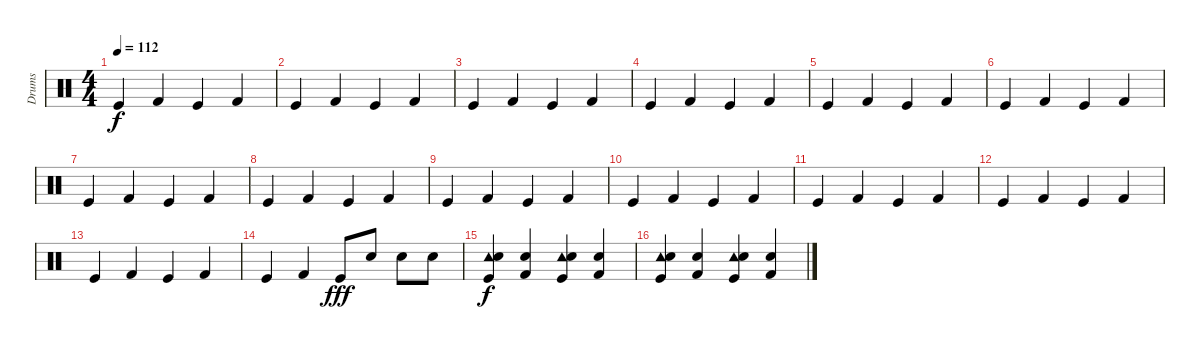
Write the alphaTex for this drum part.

\track ("Drums" "Drums") {instrument percussion}
\staff {score}
\articulation defaults
\ts (4 4)
\tempo 112
\clef neutral
\ks c "Kick (hit)".4{dy f} "Kick (hit) 2".4 "Kick (hit)".4 "Kick (hit) 2".4
|
"Kick (hit)".4 "Kick (hit) 2".4 "Kick (hit)".4 "Kick (hit) 2".4 |
"Kick (hit)".4 "Kick (hit) 2".4 "Kick (hit)".4 "Kick (hit) 2".4 |
"Kick (hit)".4 "Kick (hit) 2".4 "Kick (hit)".4 "Kick (hit) 2".4 |
"Kick (hit)".4 "Kick (hit) 2".4 "Kick (hit)".4 "Kick (hit) 2".4 |
"Kick (hit)".4 "Kick (hit) 2".4 "Kick (hit)".4 "Kick (hit) 2".4 |
"Kick (hit)".4 "Kick (hit) 2".4 "Kick (hit)".4 "Kick (hit) 2".4 |
"Kick (hit)".4 "Kick (hit) 2".4 "Kick (hit)".4 "Kick (hit) 2".4 |
"Kick (hit)".4 "Kick (hit) 2".4 "Kick (hit)".4 "Kick (hit) 2".4 |
"Kick (hit)".4 "Kick (hit) 2".4 "Kick (hit)".4 "Kick (hit) 2".4 |
"Kick (hit)".4 "Kick (hit) 2".4 "Kick (hit)".4 "Kick (hit) 2".4 |
"Kick (hit)".4 "Kick (hit) 2".4 "Kick (hit)".4 "Kick (hit) 2".4 |
"Kick (hit)".4 "Kick (hit) 2".4 "Kick (hit)".4 "Kick (hit) 2".4 |
"Kick (hit)".4 "Kick (hit) 2".4 "Kick (hit)".8{dy fff} "Snare (hit) 2".8 "Snare (hit) 2".8 "Electric Snare (hit)".8 |
("Tambourine (hit)" "Kick (hit)" "Snare (hit) 2").4{dy f} ("Snare (hit) 2" "Kick (hit) 2").4 ("Kick (hit)" "Tambourine (hit)" "Snare (hit) 2").4 ("Snare (hit) 2" "Kick (hit) 2").4 |
("Tambourine (hit)" "Kick (hit)" "Snare (hit) 2").4 ("Snare (hit) 2" "Kick (hit) 2").4 ("Kick (hit)" "Tambourine (hit)" "Snare (hit) 2").4 ("Snare (hit) 2" "Kick (hit) 2").4
